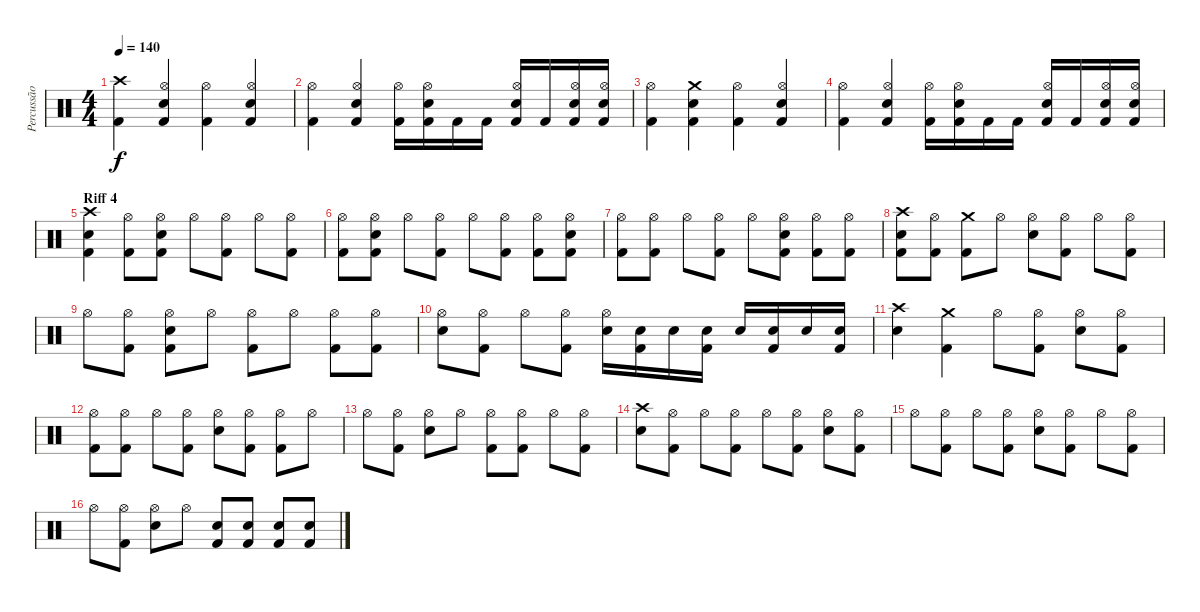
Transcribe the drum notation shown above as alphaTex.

\track ("Percussão" "Percussão") {instrument percussion}
\staff {score}
\articulation defaults
\ts (4 4)
\tempo 140
\clef neutral
\ks c
("Crash high (hit)" "Kick (hit) 2").4{dy f} ("Hi-Hat (open)" "Snare (hit) 2" "Kick (hit) 2").4 ("Hi-Hat (open)" "Kick (hit) 2").4 ("Hi-Hat (open)" "Snare (hit) 2" "Kick (hit) 2").4 |
("Hi-Hat (open)" "Kick (hit) 2").4 ("Hi-Hat (open)" "Snare (hit) 2" "Kick (hit) 2").4 ("Hi-Hat (open)" "Kick (hit) 2").16 ("Hi-Hat (open)" "Snare (hit) 2" "Kick (hit) 2").16 "Kick (hit) 2".16 "Kick (hit) 2".16 ("Hi-Hat (open)" "Snare (hit) 2" "Kick (hit) 2").16 "Kick (hit) 2".16 ("Hi-Hat (open)" "Snare (hit) 2" "Kick (hit) 2").16 ("Hi-Hat (open)" "Snare (hit) 2" "Kick (hit) 2").16 |
("Hi-Hat (open)" "Kick (hit) 2").4 ("Crash medium (hit)" "Snare (hit) 2" "Kick (hit) 2").4 ("Hi-Hat (open)" "Kick (hit) 2").4 ("Hi-Hat (open)" "Snare (hit) 2" "Kick (hit) 2").4 |
("Hi-Hat (open)" "Kick (hit) 2").4 ("Hi-Hat (open)" "Snare (hit) 2" "Kick (hit) 2").4 ("Hi-Hat (open)" "Kick (hit) 2").16 ("Hi-Hat (open)" "Snare (hit) 2" "Kick (hit) 2").16 "Kick (hit) 2".16 "Kick (hit) 2".16 ("Hi-Hat (open)" "Snare (hit) 2" "Kick (hit) 2").16 "Kick (hit) 2".16 ("Hi-Hat (open)" "Snare (hit) 2" "Kick (hit) 2").16 ("Hi-Hat (open)" "Snare (hit) 2" "Kick (hit) 2").16 |
\section ("" "Riff 4")
("Crash high (hit)" "Snare (hit) 2" "Kick (hit) 2").4 ("Hi-Hat (open)" "Kick (hit) 2").8 ("Hi-Hat (open)" "Snare (hit) 2" "Kick (hit) 2").8 "Hi-Hat (open)".8 ("Hi-Hat (open)" "Kick (hit) 2").8 "Hi-Hat (open)".8 ("Hi-Hat (open)" "Kick (hit) 2").8 |
("Hi-Hat (open)" "Kick (hit) 2").8 ("Hi-Hat (open)" "Snare (hit) 2" "Kick (hit) 2").8 "Hi-Hat (open)".8 ("Hi-Hat (open)" "Kick (hit) 2").8 "Hi-Hat (open)".8 ("Hi-Hat (open)" "Kick (hit) 2").8 ("Hi-Hat (open)" "Kick (hit) 2").8 ("Hi-Hat (open)" "Snare (hit) 2" "Kick (hit) 2").8 |
("Hi-Hat (open)" "Kick (hit) 2").8 ("Hi-Hat (open)" "Kick (hit) 2").8 "Hi-Hat (open)".8 ("Hi-Hat (open)" "Kick (hit) 2").8 "Hi-Hat (open)".8 ("Hi-Hat (open)" "Snare (hit) 2" "Kick (hit) 2").8 ("Hi-Hat (open)" "Kick (hit) 2").8 ("Hi-Hat (open)" "Kick (hit) 2").8 |
("Crash high (hit)" "Snare (hit) 2" "Kick (hit) 2").8 ("Hi-Hat (open)" "Kick (hit) 2").8 ("Crash medium (hit)" "Kick (hit) 2").8 "Hi-Hat (open)".8 ("Hi-Hat (open)" "Snare (hit) 2").8 ("Hi-Hat (open)" "Kick (hit) 2").8 "Hi-Hat (open)".8 ("Hi-Hat (open)" "Kick (hit) 2").8 |
"Hi-Hat (open)".8 ("Hi-Hat (open)" "Kick (hit) 2").8 ("Hi-Hat (open)" "Snare (hit) 2" "Kick (hit) 2").8 "Hi-Hat (open)".8 ("Hi-Hat (open)" "Kick (hit) 2").8 "Hi-Hat (open)".8 ("Hi-Hat (open)" "Kick (hit) 2").8 ("Hi-Hat (open)" "Kick (hit) 2").8 |
("Hi-Hat (open)" "Snare (hit) 2").8 ("Hi-Hat (open)" "Kick (hit) 2").8 "Hi-Hat (open)".8 ("Hi-Hat (open)" "Kick (hit) 2").8 ("Hi-Hat (open)" "Electric Snare (hit)").16 ("Electric Snare (hit)" "Kick (hit) 2").16 "Electric Snare (hit)".16 ("Electric Snare (hit)" "Kick (hit) 2").16 "Snare (hit) 2".16 ("Snare (hit) 2" "Kick (hit) 2").16 "Snare (hit) 2".16 ("Snare (hit) 2" "Kick (hit) 2").16 |
("Crash high (hit)" "Snare (hit) 2").4 ("Crash medium (hit)" "Kick (hit) 2").4 "Hi-Hat (open)".8 ("Hi-Hat (open)" "Kick (hit) 2").8 ("Hi-Hat (open)" "Snare (hit) 2").8 ("Hi-Hat (open)" "Kick (hit) 2").8 |
("Hi-Hat (open)" "Kick (hit) 2").8 ("Hi-Hat (open)" "Kick (hit) 2").8 "Hi-Hat (open)".8 ("Hi-Hat (open)" "Kick (hit) 2").8 ("Hi-Hat (open)" "Snare (hit) 2").8 ("Hi-Hat (open)" "Kick (hit) 2").8 ("Hi-Hat (open)" "Kick (hit) 2").8 "Hi-Hat (open)".8 |
"Hi-Hat (open)".8 ("Hi-Hat (open)" "Kick (hit) 2").8 ("Hi-Hat (open)" "Snare (hit) 2").8 "Hi-Hat (open)".8 ("Hi-Hat (open)" "Kick (hit) 2").8 ("Hi-Hat (open)" "Kick (hit) 2").8 "Hi-Hat (open)".8 ("Hi-Hat (open)" "Kick (hit) 2").8 |
("Crash high (hit)" "Snare (hit) 2").8 ("Hi-Hat (open)" "Kick (hit) 2").8 "Hi-Hat (open)".8 ("Hi-Hat (open)" "Kick (hit) 2").8 "Hi-Hat (open)".8 ("Hi-Hat (open)" "Kick (hit) 2").8 ("Hi-Hat (open)" "Snare (hit) 2").8 ("Hi-Hat (open)" "Kick (hit) 2").8 |
"Hi-Hat (open)".8 ("Hi-Hat (open)" "Kick (hit) 2").8 "Hi-Hat (open)".8 ("Hi-Hat (open)" "Kick (hit) 2").8 ("Hi-Hat (open)" "Snare (hit) 2").8 ("Hi-Hat (open)" "Kick (hit) 2").8 "Hi-Hat (open)".8 ("Hi-Hat (open)" "Kick (hit) 2").8 |
"Hi-Hat (open)".8 ("Hi-Hat (open)" "Kick (hit) 2").8 ("Hi-Hat (open)" "Snare (hit) 2").8 "Hi-Hat (open)".8 ("Snare (hit) 2" "Kick (hit) 2").8 ("Snare (hit) 2" "Kick (hit) 2").8 ("Snare (hit) 2" "Kick (hit) 2").8 ("Snare (hit) 2" "Kick (hit) 2").8
